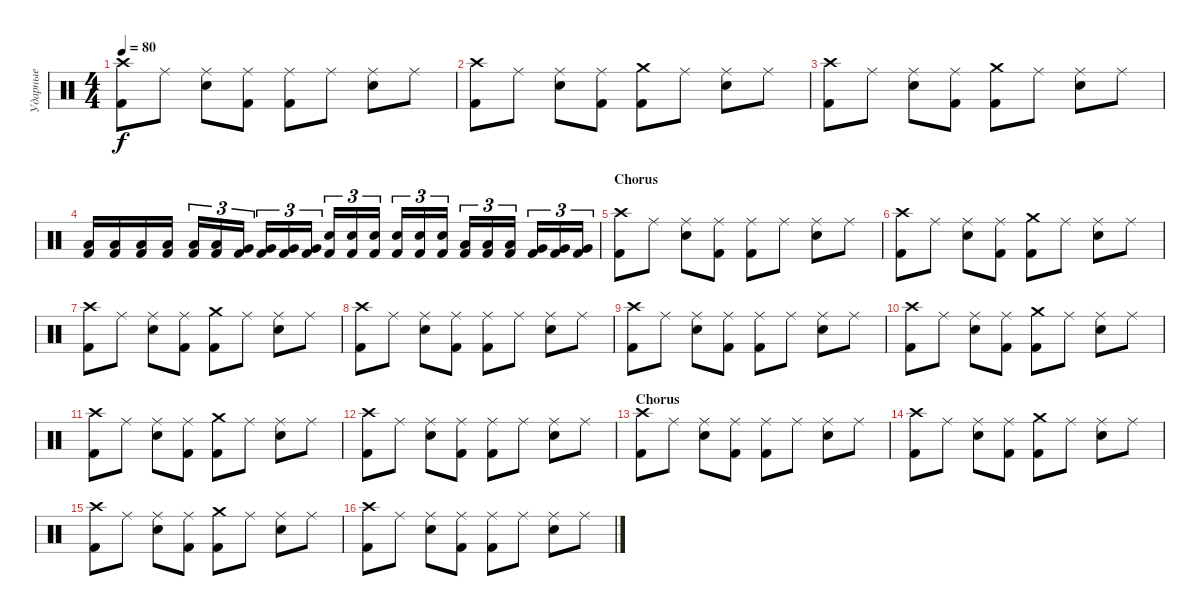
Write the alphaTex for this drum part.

\track ("Ударные" "Ударные") {instrument percussion}
\staff {score}
\articulation defaults
\ts (4 4)
\tempo 80
\clef neutral
\ks c
("Crash high (hit)" "Kick (hit) 2").8{dy f} "Ride (middle)".8 ("Ride (middle)" "Electric Snare (hit)").8 ("Ride (middle)" "Kick (hit) 2").8 ("Ride (middle)" "Kick (hit) 2").8 "Ride (middle)".8 ("Ride (middle)" "Electric Snare (hit)").8 "Ride (middle)".8 |
("Crash high (hit)" "Kick (hit) 2").8 "Ride (middle)".8 ("Ride (middle)" "Electric Snare (hit)").8 ("Ride (middle)" "Kick (hit) 2").8 ("Crash medium (hit)" "Kick (hit) 2").8 "Ride (middle)".8 ("Ride (middle)" "Electric Snare (hit)").8 "Ride (middle)".8 |
("Crash high (hit)" "Kick (hit) 2").8 "Ride (middle)".8 ("Ride (middle)" "Electric Snare (hit)").8 ("Ride (middle)" "Kick (hit) 2").8 ("Crash medium (hit)" "Kick (hit) 2").8 "Ride (middle)".8 ("Ride (middle)" "Electric Snare (hit)").8 "Ride (middle)".8 |
("Low Floor Tom (hit)" "Kick (hit) 2").16 ("Low Floor Tom (hit)" "Kick (hit) 2").16 ("Low Floor Tom (hit)" "Kick (hit) 2").16 ("Low Floor Tom (hit)" "Kick (hit) 2").16 ("Low Tom (hit)" "Kick (hit) 2").16{tu (3 2)} ("Low Tom (hit)" "Kick (hit) 2").16{tu (3 2)} ("Very Low Tom (hit)" "Kick (hit) 2").16{tu (3 2)} ("Very Low Tom (hit)" "Kick (hit) 2").16{tu (3 2)} ("Very Low Tom (hit)" "Kick (hit) 2").16{tu (3 2)} ("Very Low Tom (hit)" "Kick (hit) 2").16{tu (3 2)} ("Electric Snare (hit)" "Kick (hit) 2").16{tu (3 2)} ("Electric Snare (hit)" "Kick (hit) 2").16{tu (3 2)} ("Electric Snare (hit)" "Kick (hit) 2").16{tu (3 2)} ("Electric Snare (hit)" "Kick (hit) 2").16{tu (3 2)} ("Electric Snare (hit)" "Kick (hit) 2").16{tu (3 2)} ("Electric Snare (hit)" "Kick (hit) 2").16{tu (3 2)} ("Low Tom (hit)" "Kick (hit) 2").16{tu (3 2)} ("Low Tom (hit)" "Kick (hit) 2").16{tu (3 2)} ("Low Tom (hit)" "Kick (hit) 2").16{tu (3 2)} ("Very Low Tom (hit)" "Kick (hit) 2").16{tu (3 2)} ("Very Low Tom (hit)" "Kick (hit) 2").16{tu (3 2)} ("Very Low Tom (hit)" "Kick (hit) 2").16{tu (3 2)} |
\section ("" "Chorus")
("Crash high (hit)" "Kick (hit) 2").8 "Ride (middle)".8 ("Ride (middle)" "Electric Snare (hit)").8 ("Ride (middle)" "Kick (hit) 2").8 ("Ride (middle)" "Kick (hit) 2").8 "Ride (middle)".8 ("Ride (middle)" "Electric Snare (hit)").8 "Ride (middle)".8 |
("Crash high (hit)" "Kick (hit) 2").8 "Ride (middle)".8 ("Ride (middle)" "Electric Snare (hit)").8 ("Ride (middle)" "Kick (hit) 2").8 ("Crash medium (hit)" "Kick (hit) 2").8 "Ride (middle)".8 ("Ride (middle)" "Electric Snare (hit)").8 "Ride (middle)".8 |
("Crash high (hit)" "Kick (hit) 2").8 "Ride (middle)".8 ("Ride (middle)" "Electric Snare (hit)").8 ("Ride (middle)" "Kick (hit) 2").8 ("Crash medium (hit)" "Kick (hit) 2").8 "Ride (middle)".8 ("Ride (middle)" "Electric Snare (hit)").8 "Ride (middle)".8 |
("Crash high (hit)" "Kick (hit) 2").8 "Ride (middle)".8 ("Ride (middle)" "Electric Snare (hit)").8 ("Ride (middle)" "Kick (hit) 2").8 ("Ride (middle)" "Kick (hit) 2").8 "Ride (middle)".8 ("Ride (middle)" "Electric Snare (hit)").8 "Ride (middle)".8 |
("Crash high (hit)" "Kick (hit) 2").8 "Ride (middle)".8 ("Ride (middle)" "Electric Snare (hit)").8 ("Ride (middle)" "Kick (hit) 2").8 ("Ride (middle)" "Kick (hit) 2").8 "Ride (middle)".8 ("Ride (middle)" "Electric Snare (hit)").8 "Ride (middle)".8 |
("Crash high (hit)" "Kick (hit) 2").8 "Ride (middle)".8 ("Ride (middle)" "Electric Snare (hit)").8 ("Ride (middle)" "Kick (hit) 2").8 ("Crash medium (hit)" "Kick (hit) 2").8 "Ride (middle)".8 ("Ride (middle)" "Electric Snare (hit)").8 "Ride (middle)".8 |
("Crash high (hit)" "Kick (hit) 2").8 "Ride (middle)".8 ("Ride (middle)" "Electric Snare (hit)").8 ("Ride (middle)" "Kick (hit) 2").8 ("Crash medium (hit)" "Kick (hit) 2").8 "Ride (middle)".8 ("Ride (middle)" "Electric Snare (hit)").8 "Ride (middle)".8 |
("Crash high (hit)" "Kick (hit) 2").8 "Ride (middle)".8 ("Ride (middle)" "Electric Snare (hit)").8 ("Ride (middle)" "Kick (hit) 2").8 ("Ride (middle)" "Kick (hit) 2").8 "Ride (middle)".8 ("Ride (middle)" "Electric Snare (hit)").8 "Ride (middle)".8 |
\section ("" "Chorus")
("Crash high (hit)" "Kick (hit) 2").8 "Ride (middle)".8 ("Ride (middle)" "Electric Snare (hit)").8 ("Ride (middle)" "Kick (hit) 2").8 ("Ride (middle)" "Kick (hit) 2").8 "Ride (middle)".8 ("Ride (middle)" "Electric Snare (hit)").8 "Ride (middle)".8 |
("Crash high (hit)" "Kick (hit) 2").8 "Ride (middle)".8 ("Ride (middle)" "Electric Snare (hit)").8 ("Ride (middle)" "Kick (hit) 2").8 ("Crash medium (hit)" "Kick (hit) 2").8 "Ride (middle)".8 ("Ride (middle)" "Electric Snare (hit)").8 "Ride (middle)".8 |
("Crash high (hit)" "Kick (hit) 2").8 "Ride (middle)".8 ("Ride (middle)" "Electric Snare (hit)").8 ("Ride (middle)" "Kick (hit) 2").8 ("Crash medium (hit)" "Kick (hit) 2").8 "Ride (middle)".8 ("Ride (middle)" "Electric Snare (hit)").8 "Ride (middle)".8 |
("Crash high (hit)" "Kick (hit) 2").8 "Ride (middle)".8 ("Ride (middle)" "Electric Snare (hit)").8 ("Ride (middle)" "Kick (hit) 2").8 ("Ride (middle)" "Kick (hit) 2").8 "Ride (middle)".8 ("Ride (middle)" "Electric Snare (hit)").8 "Ride (middle)".8
